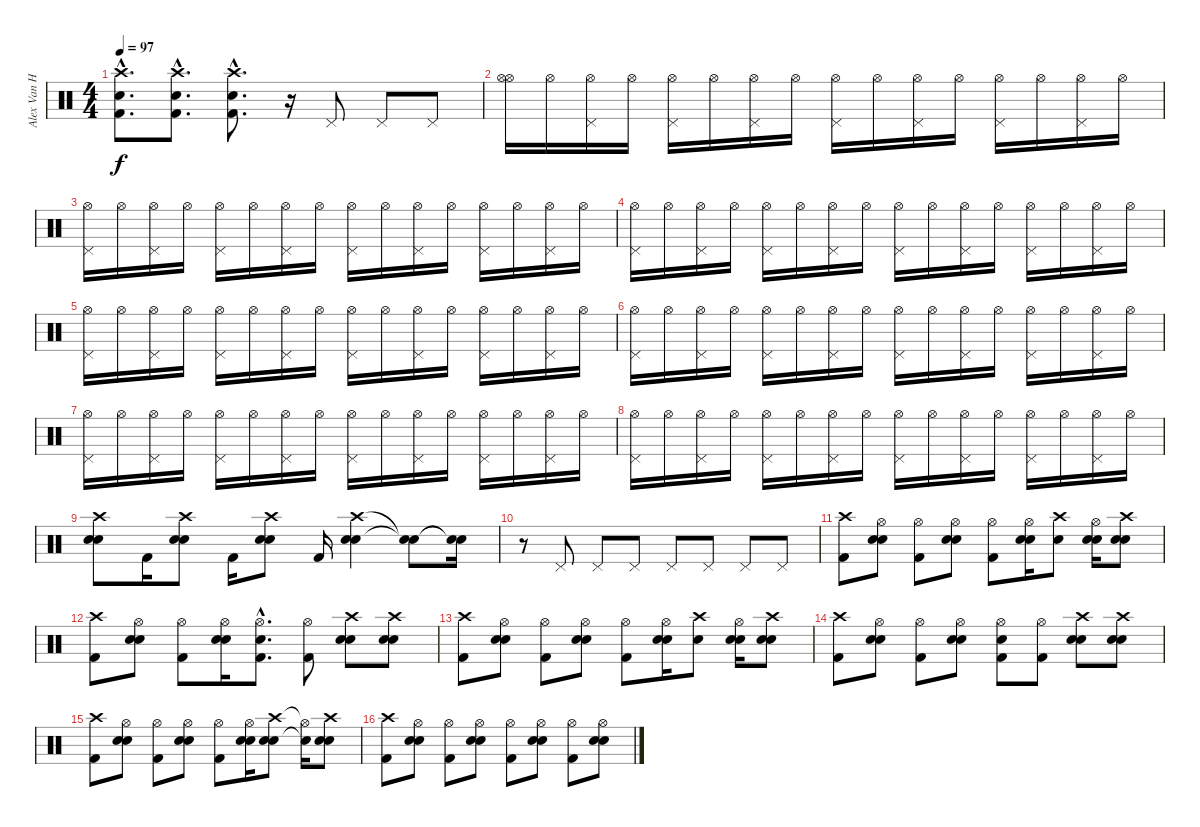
\track ("Alex Van Halen" "Alex Van H") {instrument percussion}
\staff {score}
\articulation defaults
\ts (4 4)
\tempo 97
\clef neutral
\ks c
("Crash high (hit)"{hac} "Snare (hit) 2"{hac} "Kick (hit) 2"{hac}).8{d dy f} ("Crash high (hit)"{hac} "Snare (hit) 2"{hac} "Kick (hit) 2"{hac}).8{d} ("Crash high (hit)"{hac} "Snare (hit) 2"{hac} "Kick (hit) 2"{hac}).8{d} r.16 "Pedal Hi-Hat (hit)".8 "Pedal Hi-Hat (hit)".8 "Pedal Hi-Hat (hit)".8 |
("Hi-Hat (open)" "Hi-Hat (open)").16 "Hi-Hat (open)".16 ("Pedal Hi-Hat (hit)" "Hi-Hat (open)").16 "Hi-Hat (open)".16 ("Pedal Hi-Hat (hit)" "Hi-Hat (open)").16 "Hi-Hat (open)".16 ("Pedal Hi-Hat (hit)" "Hi-Hat (open)").16 "Hi-Hat (open)".16 ("Pedal Hi-Hat (hit)" "Hi-Hat (open)").16 "Hi-Hat (open)".16 ("Pedal Hi-Hat (hit)" "Hi-Hat (open)").16 "Hi-Hat (open)".16 ("Pedal Hi-Hat (hit)" "Hi-Hat (open)").16 "Hi-Hat (open)".16 ("Pedal Hi-Hat (hit)" "Hi-Hat (open)").16 "Hi-Hat (open)".16 |
("Pedal Hi-Hat (hit)" "Hi-Hat (open)").16 "Hi-Hat (open)".16 ("Pedal Hi-Hat (hit)" "Hi-Hat (open)").16 "Hi-Hat (open)".16 ("Pedal Hi-Hat (hit)" "Hi-Hat (open)").16 "Hi-Hat (open)".16 ("Pedal Hi-Hat (hit)" "Hi-Hat (open)").16 "Hi-Hat (open)".16 ("Pedal Hi-Hat (hit)" "Hi-Hat (open)").16 "Hi-Hat (open)".16 ("Pedal Hi-Hat (hit)" "Hi-Hat (open)").16 "Hi-Hat (open)".16 ("Pedal Hi-Hat (hit)" "Hi-Hat (open)").16 "Hi-Hat (open)".16 ("Pedal Hi-Hat (hit)" "Hi-Hat (open)").16 "Hi-Hat (open)".16 |
("Pedal Hi-Hat (hit)" "Hi-Hat (open)").16 "Hi-Hat (open)".16 ("Pedal Hi-Hat (hit)" "Hi-Hat (open)").16 "Hi-Hat (open)".16 ("Pedal Hi-Hat (hit)" "Hi-Hat (open)").16 "Hi-Hat (open)".16 ("Pedal Hi-Hat (hit)" "Hi-Hat (open)").16 "Hi-Hat (open)".16 ("Pedal Hi-Hat (hit)" "Hi-Hat (open)").16 "Hi-Hat (open)".16 ("Pedal Hi-Hat (hit)" "Hi-Hat (open)").16 "Hi-Hat (open)".16 ("Pedal Hi-Hat (hit)" "Hi-Hat (open)").16 "Hi-Hat (open)".16 ("Pedal Hi-Hat (hit)" "Hi-Hat (open)").16 "Hi-Hat (open)".16 |
("Pedal Hi-Hat (hit)" "Hi-Hat (open)").16 "Hi-Hat (open)".16 ("Pedal Hi-Hat (hit)" "Hi-Hat (open)").16 "Hi-Hat (open)".16 ("Pedal Hi-Hat (hit)" "Hi-Hat (open)").16 "Hi-Hat (open)".16 ("Pedal Hi-Hat (hit)" "Hi-Hat (open)").16 "Hi-Hat (open)".16 ("Pedal Hi-Hat (hit)" "Hi-Hat (open)").16 "Hi-Hat (open)".16 ("Pedal Hi-Hat (hit)" "Hi-Hat (open)").16 "Hi-Hat (open)".16 ("Pedal Hi-Hat (hit)" "Hi-Hat (open)").16 "Hi-Hat (open)".16 ("Pedal Hi-Hat (hit)" "Hi-Hat (open)").16 "Hi-Hat (open)".16 |
("Pedal Hi-Hat (hit)" "Hi-Hat (open)").16 "Hi-Hat (open)".16 ("Pedal Hi-Hat (hit)" "Hi-Hat (open)").16 "Hi-Hat (open)".16 ("Pedal Hi-Hat (hit)" "Hi-Hat (open)").16 "Hi-Hat (open)".16 ("Pedal Hi-Hat (hit)" "Hi-Hat (open)").16 "Hi-Hat (open)".16 ("Pedal Hi-Hat (hit)" "Hi-Hat (open)").16 "Hi-Hat (open)".16 ("Pedal Hi-Hat (hit)" "Hi-Hat (open)").16 "Hi-Hat (open)".16 ("Pedal Hi-Hat (hit)" "Hi-Hat (open)").16 "Hi-Hat (open)".16 ("Pedal Hi-Hat (hit)" "Hi-Hat (open)").16 "Hi-Hat (open)".16 |
("Pedal Hi-Hat (hit)" "Hi-Hat (open)").16 "Hi-Hat (open)".16 ("Pedal Hi-Hat (hit)" "Hi-Hat (open)").16 "Hi-Hat (open)".16 ("Pedal Hi-Hat (hit)" "Hi-Hat (open)").16 "Hi-Hat (open)".16 ("Pedal Hi-Hat (hit)" "Hi-Hat (open)").16 "Hi-Hat (open)".16 ("Pedal Hi-Hat (hit)" "Hi-Hat (open)").16 "Hi-Hat (open)".16 ("Pedal Hi-Hat (hit)" "Hi-Hat (open)").16 "Hi-Hat (open)".16 ("Pedal Hi-Hat (hit)" "Hi-Hat (open)").16 "Hi-Hat (open)".16 ("Pedal Hi-Hat (hit)" "Hi-Hat (open)").16 "Hi-Hat (open)".16 |
("Pedal Hi-Hat (hit)" "Hi-Hat (open)").16 "Hi-Hat (open)".16 ("Pedal Hi-Hat (hit)" "Hi-Hat (open)").16 "Hi-Hat (open)".16 ("Pedal Hi-Hat (hit)" "Hi-Hat (open)").16 "Hi-Hat (open)".16 ("Pedal Hi-Hat (hit)" "Hi-Hat (open)").16 "Hi-Hat (open)".16 ("Pedal Hi-Hat (hit)" "Hi-Hat (open)").16 "Hi-Hat (open)".16 ("Pedal Hi-Hat (hit)" "Hi-Hat (open)").16 "Hi-Hat (open)".16 ("Pedal Hi-Hat (hit)" "Hi-Hat (open)").16 "Hi-Hat (open)".16 ("Pedal Hi-Hat (hit)" "Hi-Hat (open)").16 "Hi-Hat (open)".16 |
("Crash high (hit)" "Electric Snare (hit)" "Snare (hit) 2").8 "Kick (hit) 2".16 ("Crash high (hit)" "Electric Snare (hit)" "Snare (hit) 2").8 "Kick (hit) 2".16 ("Crash high (hit)" "Electric Snare (hit)" "Snare (hit) 2").8 "Kick (hit) 2".16 ("Crash high (hit)" "Electric Snare (hit)" "Snare (hit) 2").4 ("Snare (hit)"{t} "Snare (hit)"{t}).8 ("Snare (hit)"{t} "Snare (hit)"{t}).16 |
r.8 "Pedal Hi-Hat (hit)".8 "Pedal Hi-Hat (hit)".8 "Pedal Hi-Hat (hit)".8 "Pedal Hi-Hat (hit)".8 "Pedal Hi-Hat (hit)".8 "Pedal Hi-Hat (hit)".8 "Pedal Hi-Hat (hit)".8 |
("Crash high (hit)" "Kick (hit) 2").8 ("Hi-Hat (open)" "Snare (hit) 2" "Electric Snare (hit)").8 ("Hi-Hat (open)" "Kick (hit) 2").8 ("Hi-Hat (open)" "Snare (hit) 2" "Electric Snare (hit)").8 ("Hi-Hat (open)" "Kick (hit) 2").8 ("Hi-Hat (open)" "Snare (hit) 2" "Electric Snare (hit)").16 ("Crash high (hit)" "Electric Snare (hit)").8 ("Hi-Hat (open)" "Snare (hit) 2" "Electric Snare (hit)").16 ("Crash high (hit)" "Snare (hit) 2" "Electric Snare (hit)").8 |
("Crash high (hit)" "Kick (hit) 2").8 ("Hi-Hat (open)" "Snare (hit) 2" "Electric Snare (hit)").8 ("Hi-Hat (open)" "Kick (hit) 2").8 ("Hi-Hat (open)" "Snare (hit) 2" "Electric Snare (hit)").16 ("Hi-Hat (open)"{hac} "Electric Snare (hit)"{hac} "Kick (hit) 2"{hac}).8{d} ("Hi-Hat (open)" "Kick (hit) 2").8 ("Crash high (hit)" "Snare (hit) 2" "Electric Snare (hit)").8 ("Crash high (hit)" "Snare (hit) 2" "Electric Snare (hit)").8 |
("Crash high (hit)" "Kick (hit) 2").8 ("Hi-Hat (open)" "Snare (hit) 2" "Electric Snare (hit)").8 ("Hi-Hat (open)" "Kick (hit) 2").8 ("Hi-Hat (open)" "Snare (hit) 2" "Electric Snare (hit)").8 ("Hi-Hat (open)" "Kick (hit) 2").8 ("Hi-Hat (open)" "Snare (hit) 2" "Electric Snare (hit)").16 ("Crash high (hit)" "Electric Snare (hit)").8 ("Hi-Hat (open)" "Snare (hit) 2" "Electric Snare (hit)").16 ("Crash high (hit)" "Snare (hit) 2" "Electric Snare (hit)").8 |
("Crash high (hit)" "Kick (hit) 2").8 ("Hi-Hat (open)" "Snare (hit) 2" "Electric Snare (hit)").8 ("Hi-Hat (open)" "Kick (hit) 2").8 ("Hi-Hat (open)" "Snare (hit) 2" "Electric Snare (hit)").8 ("Hi-Hat (open)" "Electric Snare (hit)" "Kick (hit) 2").8 ("Hi-Hat (open)" "Kick (hit) 2").8 ("Crash high (hit)" "Snare (hit) 2" "Electric Snare (hit)").8 ("Crash high (hit)" "Snare (hit) 2" "Electric Snare (hit)").8 |
("Crash high (hit)" "Kick (hit) 2").8 ("Hi-Hat (open)" "Snare (hit) 2" "Electric Snare (hit)").8 ("Hi-Hat (open)" "Kick (hit) 2").8 ("Hi-Hat (open)" "Snare (hit) 2" "Electric Snare (hit)").8 ("Hi-Hat (open)" "Kick (hit) 2").8 ("Hi-Hat (open)" "Snare (hit) 2" "Electric Snare (hit)").16 ("Crash high (hit)" "Snare (hit) 2" "Electric Snare (hit)").8 ("Hi-Hat (open)"{t} "Electric Snare (hit)"{t}).16 ("Crash high (hit)" "Snare (hit) 2" "Electric Snare (hit)").8 |
("Crash high (hit)" "Kick (hit) 2").8 ("Hi-Hat (open)" "Snare (hit) 2" "Electric Snare (hit)").8 ("Hi-Hat (open)" "Kick (hit) 2").8 ("Hi-Hat (open)" "Snare (hit) 2" "Electric Snare (hit)").8 ("Hi-Hat (open)" "Kick (hit) 2").8 ("Hi-Hat (open)" "Snare (hit) 2" "Electric Snare (hit)").8 ("Hi-Hat (open)" "Kick (hit) 2").8 ("Hi-Hat (open)" "Snare (hit) 2" "Electric Snare (hit)").8
